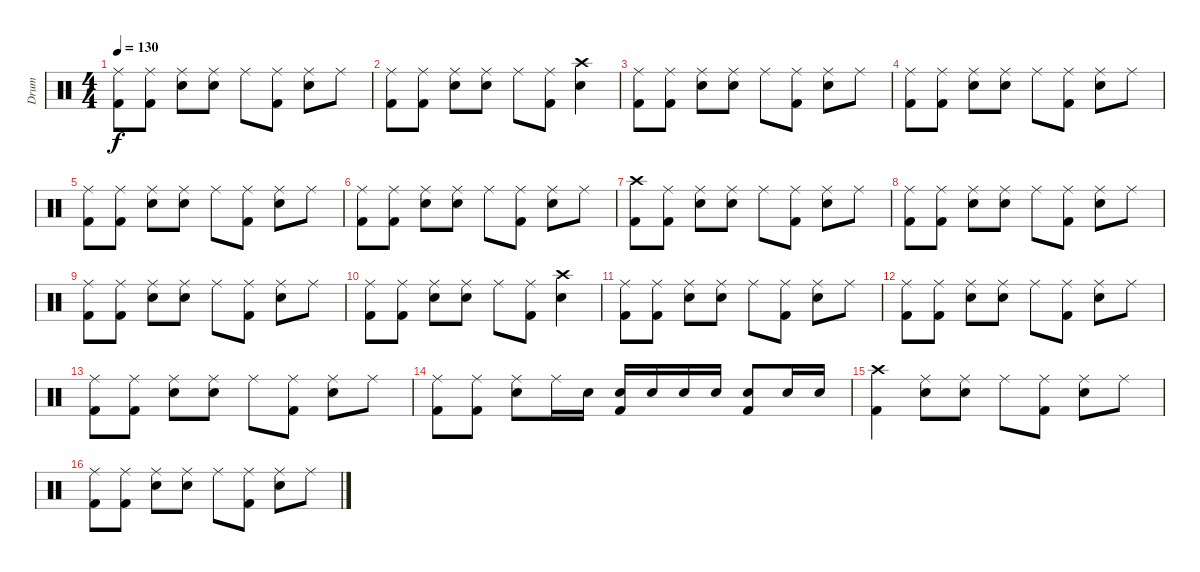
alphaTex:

\track ("Drum" "Drum") {instrument percussion}
\staff {score}
\articulation defaults
\ts (4 4)
\tempo 130
\clef neutral
\ks c
("Ride (middle)" "Kick (hit) 2").8{dy f} ("Ride (middle)" "Kick (hit) 2").8 ("Ride (middle)" "Electric Snare (hit)").8 ("Ride (middle)" "Electric Snare (hit)").8 "Ride (middle)".8 ("Ride (middle)" "Kick (hit) 2").8 ("Ride (middle)" "Electric Snare (hit)").8 "Ride (middle)".8 |
("Ride (middle)" "Kick (hit) 2").8 ("Ride (middle)" "Kick (hit) 2").8 ("Ride (middle)" "Electric Snare (hit)").8 ("Ride (middle)" "Electric Snare (hit)").8 "Ride (middle)".8 ("Ride (middle)" "Kick (hit) 2").8 ("Crash high (hit)" "Electric Snare (hit)").4 |
("Ride (middle)" "Kick (hit) 2").8 ("Ride (middle)" "Kick (hit) 2").8 ("Ride (middle)" "Electric Snare (hit)").8 ("Ride (middle)" "Electric Snare (hit)").8 "Ride (middle)".8 ("Ride (middle)" "Kick (hit) 2").8 ("Ride (middle)" "Electric Snare (hit)").8 "Ride (middle)".8 |
("Ride (middle)" "Kick (hit) 2").8 ("Ride (middle)" "Kick (hit) 2").8 ("Ride (middle)" "Electric Snare (hit)").8 ("Ride (middle)" "Electric Snare (hit)").8 "Ride (middle)".8 ("Ride (middle)" "Kick (hit) 2").8 ("Ride (middle)" "Electric Snare (hit)").8 "Ride (middle)".8 |
("Ride (middle)" "Kick (hit) 2").8 ("Ride (middle)" "Kick (hit) 2").8 ("Ride (middle)" "Electric Snare (hit)").8 ("Ride (middle)" "Electric Snare (hit)").8 "Ride (middle)".8 ("Ride (middle)" "Kick (hit) 2").8 ("Ride (middle)" "Electric Snare (hit)").8 "Ride (middle)".8 |
("Ride (middle)" "Kick (hit) 2").8 ("Ride (middle)" "Kick (hit) 2").8 ("Ride (middle)" "Electric Snare (hit)").8 ("Ride (middle)" "Electric Snare (hit)").8 "Ride (middle)".8 ("Ride (middle)" "Kick (hit) 2").8 ("Ride (middle)" "Electric Snare (hit)").8 "Ride (middle)".8 |
("Crash high (hit)" "Kick (hit) 2").8 ("Ride (middle)" "Kick (hit) 2").8 ("Ride (middle)" "Electric Snare (hit)").8 ("Ride (middle)" "Electric Snare (hit)").8 "Ride (middle)".8 ("Ride (middle)" "Kick (hit) 2").8 ("Ride (middle)" "Electric Snare (hit)").8 "Ride (middle)".8 |
("Ride (middle)" "Kick (hit) 2").8 ("Ride (middle)" "Kick (hit) 2").8 ("Ride (middle)" "Electric Snare (hit)").8 ("Ride (middle)" "Electric Snare (hit)").8 "Ride (middle)".8 ("Ride (middle)" "Kick (hit) 2").8 ("Ride (middle)" "Electric Snare (hit)").8 "Ride (middle)".8 |
("Ride (middle)" "Kick (hit) 2").8 ("Ride (middle)" "Kick (hit) 2").8 ("Ride (middle)" "Electric Snare (hit)").8 ("Ride (middle)" "Electric Snare (hit)").8 "Ride (middle)".8 ("Ride (middle)" "Kick (hit) 2").8 ("Ride (middle)" "Electric Snare (hit)").8 "Ride (middle)".8 |
("Ride (middle)" "Kick (hit) 2").8 ("Ride (middle)" "Kick (hit) 2").8 ("Ride (middle)" "Electric Snare (hit)").8 ("Ride (middle)" "Electric Snare (hit)").8 "Ride (middle)".8 ("Ride (middle)" "Kick (hit) 2").8 ("Crash high (hit)" "Electric Snare (hit)").4 |
("Ride (middle)" "Kick (hit) 2").8 ("Ride (middle)" "Kick (hit) 2").8 ("Ride (middle)" "Electric Snare (hit)").8 ("Ride (middle)" "Electric Snare (hit)").8 "Ride (middle)".8 ("Ride (middle)" "Kick (hit) 2").8 ("Ride (middle)" "Electric Snare (hit)").8 "Ride (middle)".8 |
("Ride (middle)" "Kick (hit) 2").8 ("Ride (middle)" "Kick (hit) 2").8 ("Ride (middle)" "Electric Snare (hit)").8 ("Ride (middle)" "Electric Snare (hit)").8 "Ride (middle)".8 ("Ride (middle)" "Kick (hit) 2").8 ("Ride (middle)" "Electric Snare (hit)").8 "Ride (middle)".8 |
("Ride (middle)" "Kick (hit) 2").8 ("Ride (middle)" "Kick (hit) 2").8 ("Ride (middle)" "Electric Snare (hit)").8 ("Ride (middle)" "Electric Snare (hit)").8 "Ride (middle)".8 ("Ride (middle)" "Kick (hit) 2").8 ("Ride (middle)" "Electric Snare (hit)").8 "Ride (middle)".8 |
("Ride (middle)" "Kick (hit) 2").8 ("Ride (middle)" "Kick (hit) 2").8 ("Ride (middle)" "Electric Snare (hit)").8 "Ride (middle)".16 "Electric Snare (hit)".16 ("Electric Snare (hit)" "Kick (hit) 2").16 "Electric Snare (hit)".16 "Electric Snare (hit)".16 "Electric Snare (hit)".16 ("Electric Snare (hit)" "Kick (hit) 2").8 "Electric Snare (hit)".16 "Electric Snare (hit)".16 |
("Crash high (hit)" "Kick (hit) 2").4 ("Ride (middle)" "Electric Snare (hit)").8 ("Ride (middle)" "Electric Snare (hit)").8 "Ride (middle)".8 ("Ride (middle)" "Kick (hit) 2").8 ("Ride (middle)" "Electric Snare (hit)").8 "Ride (middle)".8 |
("Ride (middle)" "Kick (hit) 2").8 ("Ride (middle)" "Kick (hit) 2").8 ("Ride (middle)" "Electric Snare (hit)").8 ("Ride (middle)" "Electric Snare (hit)").8 "Ride (middle)".8 ("Ride (middle)" "Kick (hit) 2").8 ("Ride (middle)" "Electric Snare (hit)").8 "Ride (middle)".8
